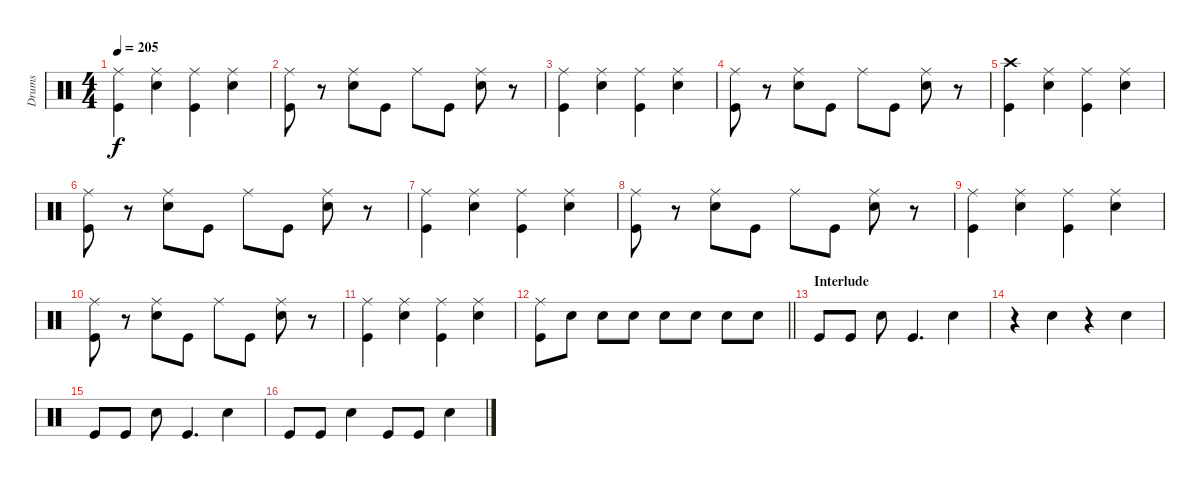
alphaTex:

\track ("Drums" "Drums") {instrument percussion}
\staff {score}
\articulation defaults
\ts (4 4)
\tempo 205
\clef neutral
\ks c
("Ride (middle)" "Kick (hit)").4{dy f} ("Ride (middle)" "Electric Snare (hit)").4 ("Ride (middle)" "Kick (hit)").4 ("Ride (middle)" "Electric Snare (hit)").4 |
("Ride (middle)" "Kick (hit)").8 r.8 ("Ride (middle)" "Electric Snare (hit)").8 "Kick (hit)".8 "Ride (middle)".8 "Kick (hit)".8 ("Ride (middle)" "Electric Snare (hit)").8 r.8 |
("Ride (middle)" "Kick (hit)").4 ("Ride (middle)" "Electric Snare (hit)").4 ("Ride (middle)" "Kick (hit)").4 ("Ride (middle)" "Electric Snare (hit)").4 |
("Ride (middle)" "Kick (hit)").8 r.8 ("Ride (middle)" "Electric Snare (hit)").8 "Kick (hit)".8 "Ride (middle)".8 "Kick (hit)".8 ("Ride (middle)" "Electric Snare (hit)").8 r.8 |
("Crash high (hit)" "Kick (hit)").4 ("Ride (middle)" "Electric Snare (hit)").4 ("Ride (middle)" "Kick (hit)").4 ("Ride (middle)" "Electric Snare (hit)").4 |
("Ride (middle)" "Kick (hit)").8 r.8 ("Ride (middle)" "Electric Snare (hit)").8 "Kick (hit)".8 "Ride (middle)".8 "Kick (hit)".8 ("Ride (middle)" "Electric Snare (hit)").8 r.8 |
("Ride (middle)" "Kick (hit)").4 ("Ride (middle)" "Electric Snare (hit)").4 ("Ride (middle)" "Kick (hit)").4 ("Ride (middle)" "Electric Snare (hit)").4 |
("Ride (middle)" "Kick (hit)").8 r.8 ("Ride (middle)" "Electric Snare (hit)").8 "Kick (hit)".8 "Ride (middle)".8 "Kick (hit)".8 ("Ride (middle)" "Electric Snare (hit)").8 r.8 |
("Ride (middle)" "Kick (hit)").4 ("Ride (middle)" "Electric Snare (hit)").4 ("Ride (middle)" "Kick (hit)").4 ("Ride (middle)" "Electric Snare (hit)").4 |
("Ride (middle)" "Kick (hit)").8 r.8 ("Ride (middle)" "Electric Snare (hit)").8 "Kick (hit)".8 "Ride (middle)".8 "Kick (hit)".8 ("Ride (middle)" "Electric Snare (hit)").8 r.8 |
("Ride (middle)" "Kick (hit)").4 ("Ride (middle)" "Electric Snare (hit)").4 ("Ride (middle)" "Kick (hit)").4 ("Ride (middle)" "Electric Snare (hit)").4 |
\barLineRight lightlight
("Ride (middle)" "Kick (hit)").8 "Electric Snare (hit)".8 "Electric Snare (hit)".8 "Electric Snare (hit)".8 "Electric Snare (hit)".8 "Electric Snare (hit)".8 "Electric Snare (hit)".8 "Electric Snare (hit)".8 |
\section ("" "Interlude")
"Kick (hit)".8 "Kick (hit)".8 "Electric Snare (hit)".8 "Kick (hit)".4{d} "Electric Snare (hit)".4 |
r.4 "Electric Snare (hit)".4 r.4 "Electric Snare (hit)".4 |
"Kick (hit)".8 "Kick (hit)".8 "Electric Snare (hit)".8 "Kick (hit)".4{d} "Electric Snare (hit)".4 |
"Kick (hit)".8 "Kick (hit)".8 "Electric Snare (hit)".4 "Kick (hit)".8 "Kick (hit)".8 "Electric Snare (hit)".4
